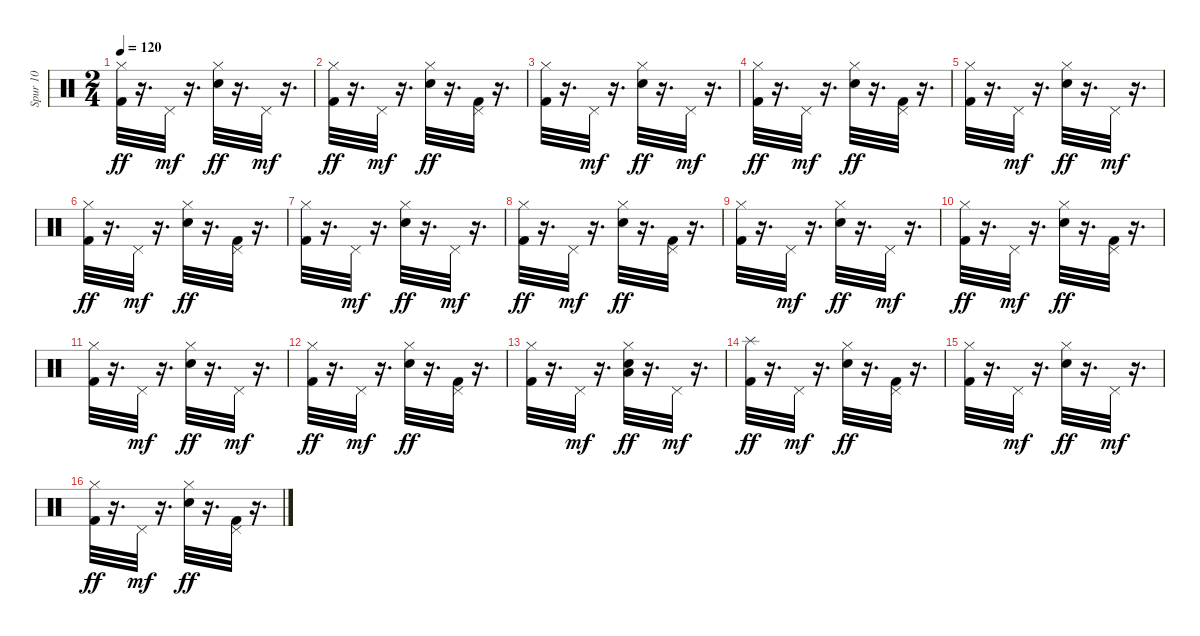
\track ("Spur 10" "Spur 10") {instrument percussion}
\staff {score}
\articulation defaults
\ts (2 4)
\tempo 120
\clef neutral
\ks c
("Hi-Hat (closed)" "Kick (hit) 2").32{dy ff} r.16{d} "Pedal Hi-Hat (hit)".32{dy mf} r.16{d} ("Hi-Hat (closed)" "Snare (hit) 2").32{dy ff} r.16{d} "Pedal Hi-Hat (hit)".32{dy mf} r.16{d} |
("Hi-Hat (closed)" "Kick (hit) 2").32{dy ff} r.16{d} "Pedal Hi-Hat (hit)".32{dy mf} r.16{d} ("Hi-Hat (closed)" "Snare (hit) 2").32{dy ff} r.16{d} ("Pedal Hi-Hat (hit)" "Kick (hit) 2").32 r.16{d} |
("Hi-Hat (closed)" "Kick (hit) 2").32 r.16{d} "Pedal Hi-Hat (hit)".32{dy mf} r.16{d} ("Hi-Hat (closed)" "Snare (hit) 2").32{dy ff} r.16{d} "Pedal Hi-Hat (hit)".32{dy mf} r.16{d} |
("Hi-Hat (closed)" "Kick (hit) 2").32{dy ff} r.16{d} "Pedal Hi-Hat (hit)".32{dy mf} r.16{d} ("Hi-Hat (closed)" "Snare (hit) 2").32{dy ff} r.16{d} ("Pedal Hi-Hat (hit)" "Kick (hit) 2").32 r.16{d} |
("Hi-Hat (closed)" "Kick (hit) 2").32 r.16{d} "Pedal Hi-Hat (hit)".32{dy mf} r.16{d} ("Hi-Hat (closed)" "Snare (hit) 2").32{dy ff} r.16{d} "Pedal Hi-Hat (hit)".32{dy mf} r.16{d} |
("Hi-Hat (closed)" "Kick (hit) 2").32{dy ff} r.16{d} "Pedal Hi-Hat (hit)".32{dy mf} r.16{d} ("Hi-Hat (closed)" "Snare (hit) 2").32{dy ff} r.16{d} ("Pedal Hi-Hat (hit)" "Kick (hit) 2").32 r.16{d} |
("Hi-Hat (closed)" "Kick (hit) 2").32 r.16{d} "Pedal Hi-Hat (hit)".32{dy mf} r.16{d} ("Hi-Hat (closed)" "Snare (hit) 2").32{dy ff} r.16{d} "Pedal Hi-Hat (hit)".32{dy mf} r.16{d} |
("Hi-Hat (closed)" "Kick (hit) 2").32{dy ff} r.16{d} "Pedal Hi-Hat (hit)".32{dy mf} r.16{d} ("Hi-Hat (closed)" "Snare (hit) 2").32{dy ff} r.16{d} ("Pedal Hi-Hat (hit)" "Kick (hit) 2").32 r.16{d} |
("Hi-Hat (closed)" "Kick (hit) 2").32 r.16{d} "Pedal Hi-Hat (hit)".32{dy mf} r.16{d} ("Hi-Hat (closed)" "Snare (hit) 2").32{dy ff} r.16{d} "Pedal Hi-Hat (hit)".32{dy mf} r.16{d} |
("Hi-Hat (closed)" "Kick (hit) 2").32{dy ff} r.16{d} "Pedal Hi-Hat (hit)".32{dy mf} r.16{d} ("Hi-Hat (closed)" "Snare (hit) 2").32{dy ff} r.16{d} ("Pedal Hi-Hat (hit)" "Kick (hit) 2").32 r.16{d} |
("Hi-Hat (closed)" "Kick (hit) 2").32 r.16{d} "Pedal Hi-Hat (hit)".32{dy mf} r.16{d} ("Hi-Hat (closed)" "Snare (hit) 2").32{dy ff} r.16{d} "Pedal Hi-Hat (hit)".32{dy mf} r.16{d} |
("Hi-Hat (closed)" "Kick (hit) 2").32{dy ff} r.16{d} "Pedal Hi-Hat (hit)".32{dy mf} r.16{d} ("Hi-Hat (closed)" "Snare (hit) 2").32{dy ff} r.16{d} ("Pedal Hi-Hat (hit)" "Kick (hit) 2").32 r.16{d} |
("Hi-Hat (closed)" "Kick (hit) 2").32 r.16{d} "Pedal Hi-Hat (hit)".32{dy mf} r.16{d} ("Low Tom (hit)" "Hi-Hat (closed)" "Snare (hit) 2").32{dy ff} r.16{d} "Pedal Hi-Hat (hit)".32{dy mf} r.16{d} |
("Splash (hit)" "Kick (hit) 2").32{dy ff} r.16{d} "Pedal Hi-Hat (hit)".32{dy mf} r.16{d} ("Hi-Hat (closed)" "Snare (hit) 2").32{dy ff} r.16{d} ("Pedal Hi-Hat (hit)" "Kick (hit) 2").32 r.16{d} |
("Hi-Hat (closed)" "Kick (hit) 2").32 r.16{d} "Pedal Hi-Hat (hit)".32{dy mf} r.16{d} ("Hi-Hat (closed)" "Snare (hit) 2").32{dy ff} r.16{d} "Pedal Hi-Hat (hit)".32{dy mf} r.16{d} |
("Hi-Hat (closed)" "Kick (hit) 2").32{dy ff} r.16{d} "Pedal Hi-Hat (hit)".32{dy mf} r.16{d} ("Hi-Hat (closed)" "Snare (hit) 2").32{dy ff} r.16{d} ("Pedal Hi-Hat (hit)" "Kick (hit) 2").32 r.16{d}
